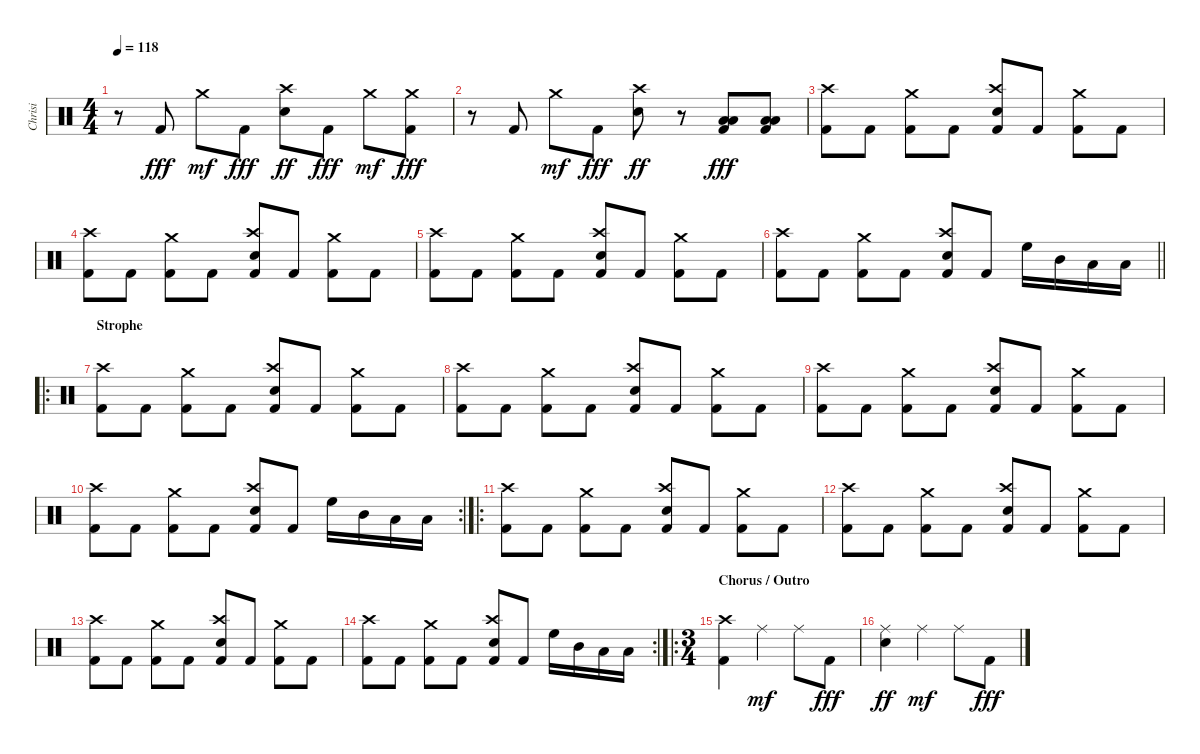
\track ("Chrisi" "Chrisi") {instrument percussion}
\staff {score}
\articulation defaults
\ts (4 4)
\tempo 118
\clef neutral
\ks c
r.8{dy fff} "Kick (hit) 2".8 "Crash medium (hit)".8{dy mf} "Kick (hit) 2".8{dy fff} ("Crash high (hit)" "Electric Snare (hit)").8{dy ff} "Kick (hit) 2".8{dy fff} "Crash medium (hit)".8{dy mf} ("Crash medium (hit)" "Kick (hit) 2").8{dy fff} |
r.8 "Kick (hit) 2".8 "Crash medium (hit)".8{dy mf} "Kick (hit) 2".8{dy fff} ("Crash high (hit)" "Electric Snare (hit)").8{dy ff} r.8 ("Low Floor Tom (hit)" "Low Floor Tom (hit)" "Kick (hit) 2").8{dy fff} ("Low Floor Tom (hit)" "Low Floor Tom (hit)" "Kick (hit) 2").8 |
("Crash high (hit)" "Kick (hit) 2").8 "Kick (hit) 2".8 ("Crash medium (hit)" "Kick (hit) 2").8 "Kick (hit) 2".8 ("Crash high (hit)" "Electric Snare (hit)" "Kick (hit) 2").8 "Kick (hit) 2".8 ("Crash medium (hit)" "Kick (hit) 2").8 "Kick (hit) 2".8 |
("Crash high (hit)" "Kick (hit) 2").8 "Kick (hit) 2".8 ("Crash medium (hit)" "Kick (hit) 2").8 "Kick (hit) 2".8 ("Crash high (hit)" "Electric Snare (hit)" "Kick (hit) 2").8 "Kick (hit) 2".8 ("Crash medium (hit)" "Kick (hit) 2").8 "Kick (hit) 2".8 |
("Crash high (hit)" "Kick (hit) 2").8 "Kick (hit) 2".8 ("Crash medium (hit)" "Kick (hit) 2").8 "Kick (hit) 2".8 ("Crash high (hit)" "Electric Snare (hit)" "Kick (hit) 2").8 "Kick (hit) 2".8 ("Crash medium (hit)" "Kick (hit) 2").8 "Kick (hit) 2".8 |
\barLineRight lightlight
("Crash high (hit)" "Kick (hit) 2").8 "Kick (hit) 2".8 ("Crash medium (hit)" "Kick (hit) 2").8 "Kick (hit) 2".8 ("Crash high (hit)" "Electric Snare (hit)" "Kick (hit) 2").8 "Kick (hit) 2".8 "High Floor Tom (hit)".16 "Mid Tom (hit)".16 "Low Floor Tom (hit)".16 "Low Floor Tom (hit)".16 |
\ro
\section ("" "Strophe")
("Crash high (hit)" "Kick (hit) 2").8 "Kick (hit) 2".8 ("Crash medium (hit)" "Kick (hit) 2").8 "Kick (hit) 2".8 ("Crash high (hit)" "Electric Snare (hit)" "Kick (hit) 2").8 "Kick (hit) 2".8 ("Crash medium (hit)" "Kick (hit) 2").8 "Kick (hit) 2".8 |
("Crash high (hit)" "Kick (hit) 2").8 "Kick (hit) 2".8 ("Crash medium (hit)" "Kick (hit) 2").8 "Kick (hit) 2".8 ("Crash high (hit)" "Electric Snare (hit)" "Kick (hit) 2").8 "Kick (hit) 2".8 ("Crash medium (hit)" "Kick (hit) 2").8 "Kick (hit) 2".8 |
("Crash high (hit)" "Kick (hit) 2").8 "Kick (hit) 2".8 ("Crash medium (hit)" "Kick (hit) 2").8 "Kick (hit) 2".8 ("Crash high (hit)" "Electric Snare (hit)" "Kick (hit) 2").8 "Kick (hit) 2".8 ("Crash medium (hit)" "Kick (hit) 2").8 "Kick (hit) 2".8 |
\rc 2
("Crash high (hit)" "Kick (hit) 2").8 "Kick (hit) 2".8 ("Crash medium (hit)" "Kick (hit) 2").8 "Kick (hit) 2".8 ("Crash high (hit)" "Electric Snare (hit)" "Kick (hit) 2").8 "Kick (hit) 2".8 "High Floor Tom (hit)".16 "Mid Tom (hit)".16 "Low Floor Tom (hit)".16 "Low Floor Tom (hit)".16 |
\ro
("Crash high (hit)" "Kick (hit) 2").8 "Kick (hit) 2".8 ("Crash medium (hit)" "Kick (hit) 2").8 "Kick (hit) 2".8 ("Crash high (hit)" "Electric Snare (hit)" "Kick (hit) 2").8 "Kick (hit) 2".8 ("Crash medium (hit)" "Kick (hit) 2").8 "Kick (hit) 2".8 |
("Crash high (hit)" "Kick (hit) 2").8 "Kick (hit) 2".8 ("Crash medium (hit)" "Kick (hit) 2").8 "Kick (hit) 2".8 ("Crash high (hit)" "Electric Snare (hit)" "Kick (hit) 2").8 "Kick (hit) 2".8 ("Crash medium (hit)" "Kick (hit) 2").8 "Kick (hit) 2".8 |
("Crash high (hit)" "Kick (hit) 2").8 "Kick (hit) 2".8 ("Crash medium (hit)" "Kick (hit) 2").8 "Kick (hit) 2".8 ("Crash high (hit)" "Electric Snare (hit)" "Kick (hit) 2").8 "Kick (hit) 2".8 ("Crash medium (hit)" "Kick (hit) 2").8 "Kick (hit) 2".8 |
\rc 2
("Crash high (hit)" "Kick (hit) 2").8 "Kick (hit) 2".8 ("Crash medium (hit)" "Kick (hit) 2").8 "Kick (hit) 2".8 ("Crash high (hit)" "Electric Snare (hit)" "Kick (hit) 2").8 "Kick (hit) 2".8 "High Floor Tom (hit)".16 "Mid Tom (hit)".16 "Low Floor Tom (hit)".16 "Low Floor Tom (hit)".16 |
\ro
\ts (3 4)
\section ("" "Chorus / Outro")
("Crash high (hit)" "Kick (hit) 2").4 "Ride (middle)".4{dy mf} "Ride (middle)".8 "Kick (hit) 2".8{dy fff} |
("Ride (middle)" "Electric Snare (hit)").4{dy ff} "Ride (middle)".4{dy mf} "Ride (middle)".8 "Kick (hit) 2".8{dy fff}
